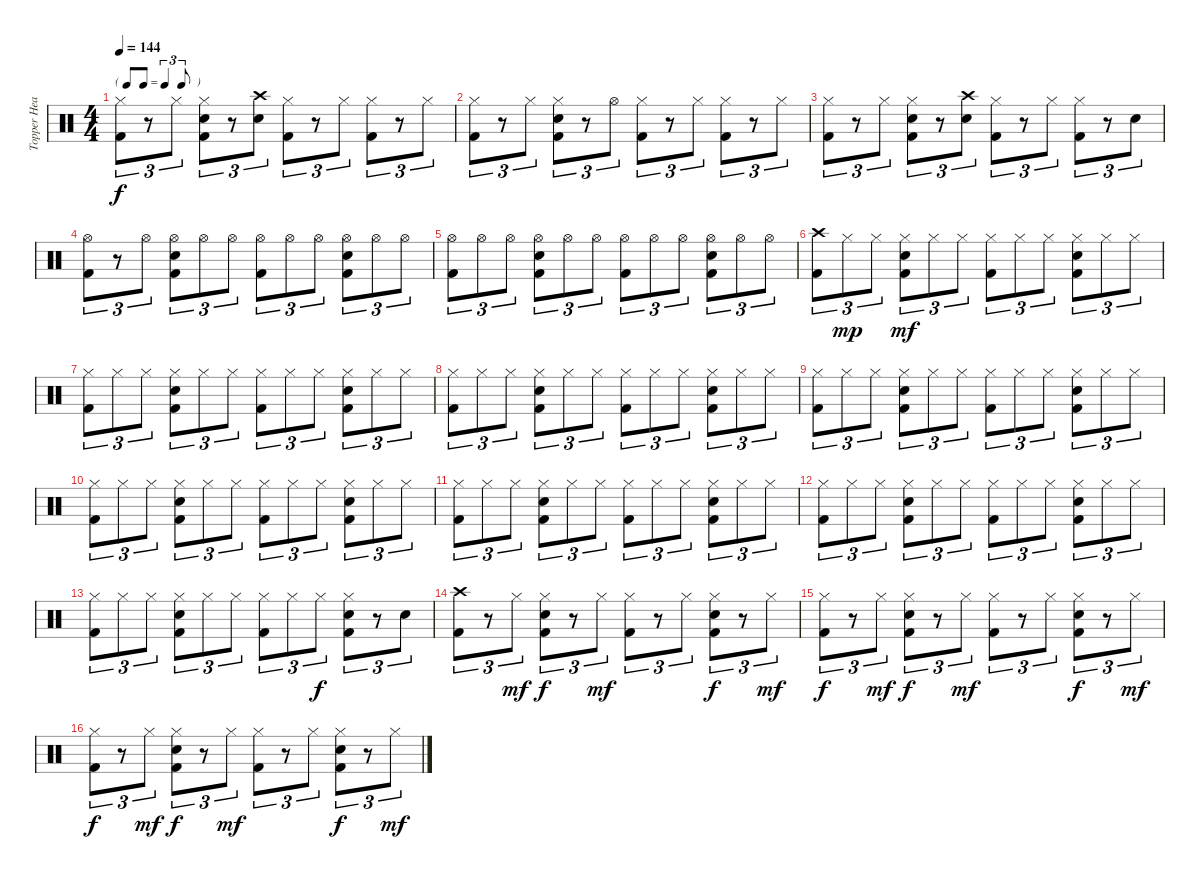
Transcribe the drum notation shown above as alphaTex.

\track ("Topper Headon" "Topper Hea") {instrument percussion}
\staff {score}
\articulation defaults
\ts (4 4)
\tf triplet8th
\tempo 144
\clef neutral
\ks c
("Hi-Hat (closed)" "Kick (hit) 2").8{tu (3 2) dy f} r.8{tu (3 2)} "Hi-Hat (closed)".8{tu (3 2)} ("Hi-Hat (closed)" "Snare (hit) 2" "Kick (hit) 2").8{tu (3 2)} r.8{tu (3 2)} ("Crash high (hit)" "Snare (hit) 2").8{tu (3 2)} ("Hi-Hat (closed)" "Kick (hit) 2").8{tu (3 2)} r.8{tu (3 2)} "Hi-Hat (closed)".8{tu (3 2)} ("Hi-Hat (closed)" "Kick (hit) 2").8{tu (3 2)} r.8{tu (3 2)} "Hi-Hat (closed)".8{tu (3 2)} |
("Hi-Hat (closed)" "Kick (hit) 2").8{tu (3 2)} r.8{tu (3 2)} "Hi-Hat (closed)".8{tu (3 2)} ("Hi-Hat (closed)" "Snare (hit) 2" "Kick (hit) 2").8{tu (3 2)} r.8{tu (3 2)} "Hi-Hat (open)".8{tu (3 2)} ("Hi-Hat (closed)" "Kick (hit) 2").8{tu (3 2)} r.8{tu (3 2)} "Hi-Hat (closed)".8{tu (3 2)} ("Hi-Hat (closed)" "Kick (hit) 2").8{tu (3 2)} r.8{tu (3 2)} "Hi-Hat (closed)".8{tu (3 2)} |
("Hi-Hat (closed)" "Kick (hit) 2").8{tu (3 2)} r.8{tu (3 2)} "Hi-Hat (closed)".8{tu (3 2)} ("Hi-Hat (closed)" "Snare (hit) 2" "Kick (hit) 2").8{tu (3 2)} r.8{tu (3 2)} ("Crash high (hit)" "Snare (hit) 2").8{tu (3 2)} ("Hi-Hat (closed)" "Kick (hit) 2").8{tu (3 2)} r.8{tu (3 2)} "Hi-Hat (closed)".8{tu (3 2)} ("Hi-Hat (closed)" "Kick (hit) 2").8{tu (3 2)} r.8{tu (3 2)} "Snare (hit) 2".8{tu (3 2)} |
("Hi-Hat (open)" "Kick (hit) 2").8{tu (3 2)} r.8{tu (3 2)} "Hi-Hat (open)".8{tu (3 2)} ("Hi-Hat (open)" "Snare (hit) 2" "Kick (hit) 2").8{tu (3 2)} "Hi-Hat (open)".8{tu (3 2)} "Hi-Hat (open)".8{tu (3 2)} ("Hi-Hat (open)" "Kick (hit) 2").8{tu (3 2)} "Hi-Hat (open)".8{tu (3 2)} "Hi-Hat (open)".8{tu (3 2)} ("Hi-Hat (open)" "Snare (hit) 2" "Kick (hit) 2").8{tu (3 2)} "Hi-Hat (open)".8{tu (3 2)} "Hi-Hat (open)".8{tu (3 2)} |
("Hi-Hat (open)" "Kick (hit) 2").8{tu (3 2)} "Hi-Hat (open)".8{tu (3 2)} "Hi-Hat (open)".8{tu (3 2)} ("Hi-Hat (open)" "Snare (hit) 2" "Kick (hit) 2").8{tu (3 2)} "Hi-Hat (open)".8{tu (3 2)} "Hi-Hat (open)".8{tu (3 2)} ("Hi-Hat (open)" "Kick (hit) 2").8{tu (3 2)} "Hi-Hat (open)".8{tu (3 2)} "Hi-Hat (open)".8{tu (3 2)} ("Hi-Hat (open)" "Snare (hit) 2" "Kick (hit) 2").8{tu (3 2)} "Hi-Hat (open)".8{tu (3 2)} "Hi-Hat (open)".8{tu (3 2)} |
("Crash high (hit)" "Kick (hit) 2").8{tu (3 2)} "Hi-Hat (closed)".8{tu (3 2) dy mp} "Hi-Hat (closed)".8{tu (3 2)} ("Hi-Hat (closed)" "Snare (hit) 2" "Kick (hit) 2").8{tu (3 2) dy mf} "Hi-Hat (closed)".8{tu (3 2)} "Hi-Hat (closed)".8{tu (3 2)} ("Hi-Hat (closed)" "Kick (hit) 2").8{tu (3 2)} "Hi-Hat (closed)".8{tu (3 2)} "Hi-Hat (closed)".8{tu (3 2)} ("Hi-Hat (closed)" "Snare (hit) 2" "Kick (hit) 2").8{tu (3 2)} "Hi-Hat (closed)".8{tu (3 2)} "Hi-Hat (closed)".8{tu (3 2)} |
("Hi-Hat (closed)" "Kick (hit) 2").8{tu (3 2)} "Hi-Hat (closed)".8{tu (3 2)} "Hi-Hat (closed)".8{tu (3 2)} ("Hi-Hat (closed)" "Snare (hit) 2" "Kick (hit) 2").8{tu (3 2)} "Hi-Hat (closed)".8{tu (3 2)} "Hi-Hat (closed)".8{tu (3 2)} ("Hi-Hat (closed)" "Kick (hit) 2").8{tu (3 2)} "Hi-Hat (closed)".8{tu (3 2)} "Hi-Hat (closed)".8{tu (3 2)} ("Hi-Hat (closed)" "Snare (hit) 2" "Kick (hit) 2").8{tu (3 2)} "Hi-Hat (closed)".8{tu (3 2)} "Hi-Hat (closed)".8{tu (3 2)} |
("Hi-Hat (closed)" "Kick (hit) 2").8{tu (3 2)} "Hi-Hat (closed)".8{tu (3 2)} "Hi-Hat (closed)".8{tu (3 2)} ("Hi-Hat (closed)" "Snare (hit) 2" "Kick (hit) 2").8{tu (3 2)} "Hi-Hat (closed)".8{tu (3 2)} "Hi-Hat (closed)".8{tu (3 2)} ("Hi-Hat (closed)" "Kick (hit) 2").8{tu (3 2)} "Hi-Hat (closed)".8{tu (3 2)} "Hi-Hat (closed)".8{tu (3 2)} ("Hi-Hat (closed)" "Snare (hit) 2" "Kick (hit) 2").8{tu (3 2)} "Hi-Hat (closed)".8{tu (3 2)} "Hi-Hat (closed)".8{tu (3 2)} |
("Hi-Hat (closed)" "Kick (hit) 2").8{tu (3 2)} "Hi-Hat (closed)".8{tu (3 2)} "Hi-Hat (closed)".8{tu (3 2)} ("Hi-Hat (closed)" "Snare (hit) 2" "Kick (hit) 2").8{tu (3 2)} "Hi-Hat (closed)".8{tu (3 2)} "Hi-Hat (closed)".8{tu (3 2)} ("Hi-Hat (closed)" "Kick (hit) 2").8{tu (3 2)} "Hi-Hat (closed)".8{tu (3 2)} "Hi-Hat (closed)".8{tu (3 2)} ("Hi-Hat (closed)" "Snare (hit) 2" "Kick (hit) 2").8{tu (3 2)} "Hi-Hat (closed)".8{tu (3 2)} "Hi-Hat (closed)".8{tu (3 2)} |
("Hi-Hat (closed)" "Kick (hit) 2").8{tu (3 2)} "Hi-Hat (closed)".8{tu (3 2)} "Hi-Hat (closed)".8{tu (3 2)} ("Hi-Hat (closed)" "Snare (hit) 2" "Kick (hit) 2").8{tu (3 2)} "Hi-Hat (closed)".8{tu (3 2)} "Hi-Hat (closed)".8{tu (3 2)} ("Hi-Hat (closed)" "Kick (hit) 2").8{tu (3 2)} "Hi-Hat (closed)".8{tu (3 2)} "Hi-Hat (closed)".8{tu (3 2)} ("Hi-Hat (closed)" "Snare (hit) 2" "Kick (hit) 2").8{tu (3 2)} "Hi-Hat (closed)".8{tu (3 2)} "Hi-Hat (closed)".8{tu (3 2)} |
("Hi-Hat (closed)" "Kick (hit) 2").8{tu (3 2)} "Hi-Hat (closed)".8{tu (3 2)} "Hi-Hat (closed)".8{tu (3 2)} ("Hi-Hat (closed)" "Snare (hit) 2" "Kick (hit) 2").8{tu (3 2)} "Hi-Hat (closed)".8{tu (3 2)} "Hi-Hat (closed)".8{tu (3 2)} ("Hi-Hat (closed)" "Kick (hit) 2").8{tu (3 2)} "Hi-Hat (closed)".8{tu (3 2)} "Hi-Hat (closed)".8{tu (3 2)} ("Hi-Hat (closed)" "Snare (hit) 2" "Kick (hit) 2").8{tu (3 2)} "Hi-Hat (closed)".8{tu (3 2)} "Hi-Hat (closed)".8{tu (3 2)} |
("Hi-Hat (closed)" "Kick (hit) 2").8{tu (3 2)} "Hi-Hat (closed)".8{tu (3 2)} "Hi-Hat (closed)".8{tu (3 2)} ("Hi-Hat (closed)" "Snare (hit) 2" "Kick (hit) 2").8{tu (3 2)} "Hi-Hat (closed)".8{tu (3 2)} "Hi-Hat (closed)".8{tu (3 2)} ("Hi-Hat (closed)" "Kick (hit) 2").8{tu (3 2)} "Hi-Hat (closed)".8{tu (3 2)} "Hi-Hat (closed)".8{tu (3 2)} ("Hi-Hat (closed)" "Snare (hit) 2" "Kick (hit) 2").8{tu (3 2)} "Hi-Hat (closed)".8{tu (3 2)} "Hi-Hat (closed)".8{tu (3 2)} |
("Hi-Hat (closed)" "Kick (hit) 2").8{tu (3 2)} "Hi-Hat (closed)".8{tu (3 2)} "Hi-Hat (closed)".8{tu (3 2)} ("Hi-Hat (closed)" "Snare (hit) 2" "Kick (hit) 2").8{tu (3 2)} "Hi-Hat (closed)".8{tu (3 2)} "Hi-Hat (closed)".8{tu (3 2)} ("Hi-Hat (closed)" "Kick (hit) 2").8{tu (3 2)} "Hi-Hat (closed)".8{tu (3 2)} "Hi-Hat (closed)".8{tu (3 2) dy f} ("Hi-Hat (closed)" "Snare (hit) 2" "Kick (hit) 2").8{tu (3 2)} r.8{tu (3 2)} "Snare (hit) 2".8{tu (3 2)} |
("Crash high (hit)" "Kick (hit) 2").8{tu (3 2)} r.8{tu (3 2)} "Hi-Hat (closed)".8{tu (3 2) dy mf} ("Hi-Hat (closed)" "Snare (hit) 2" "Kick (hit) 2").8{tu (3 2) dy f} r.8{tu (3 2)} "Hi-Hat (closed)".8{tu (3 2) dy mf} ("Hi-Hat (closed)" "Kick (hit) 2").8{tu (3 2)} r.8{tu (3 2)} "Hi-Hat (closed)".8{tu (3 2)} ("Hi-Hat (closed)" "Snare (hit) 2" "Kick (hit) 2").8{tu (3 2) dy f} r.8{tu (3 2)} "Hi-Hat (closed)".8{tu (3 2) dy mf} |
("Hi-Hat (closed)" "Kick (hit) 2").8{tu (3 2) dy f} r.8{tu (3 2)} "Hi-Hat (closed)".8{tu (3 2) dy mf} ("Hi-Hat (closed)" "Snare (hit) 2" "Kick (hit) 2").8{tu (3 2) dy f} r.8{tu (3 2)} "Hi-Hat (closed)".8{tu (3 2) dy mf} ("Hi-Hat (closed)" "Kick (hit) 2").8{tu (3 2)} r.8{tu (3 2)} "Hi-Hat (closed)".8{tu (3 2)} ("Hi-Hat (closed)" "Snare (hit) 2" "Kick (hit) 2").8{tu (3 2) dy f} r.8{tu (3 2)} "Hi-Hat (closed)".8{tu (3 2) dy mf} |
("Hi-Hat (closed)" "Kick (hit) 2").8{tu (3 2) dy f} r.8{tu (3 2)} "Hi-Hat (closed)".8{tu (3 2) dy mf} ("Hi-Hat (closed)" "Snare (hit) 2" "Kick (hit) 2").8{tu (3 2) dy f} r.8{tu (3 2)} "Hi-Hat (closed)".8{tu (3 2) dy mf} ("Hi-Hat (closed)" "Kick (hit) 2").8{tu (3 2)} r.8{tu (3 2)} "Hi-Hat (closed)".8{tu (3 2)} ("Hi-Hat (closed)" "Snare (hit) 2" "Kick (hit) 2").8{tu (3 2) dy f} r.8{tu (3 2)} "Hi-Hat (closed)".8{tu (3 2) dy mf}
